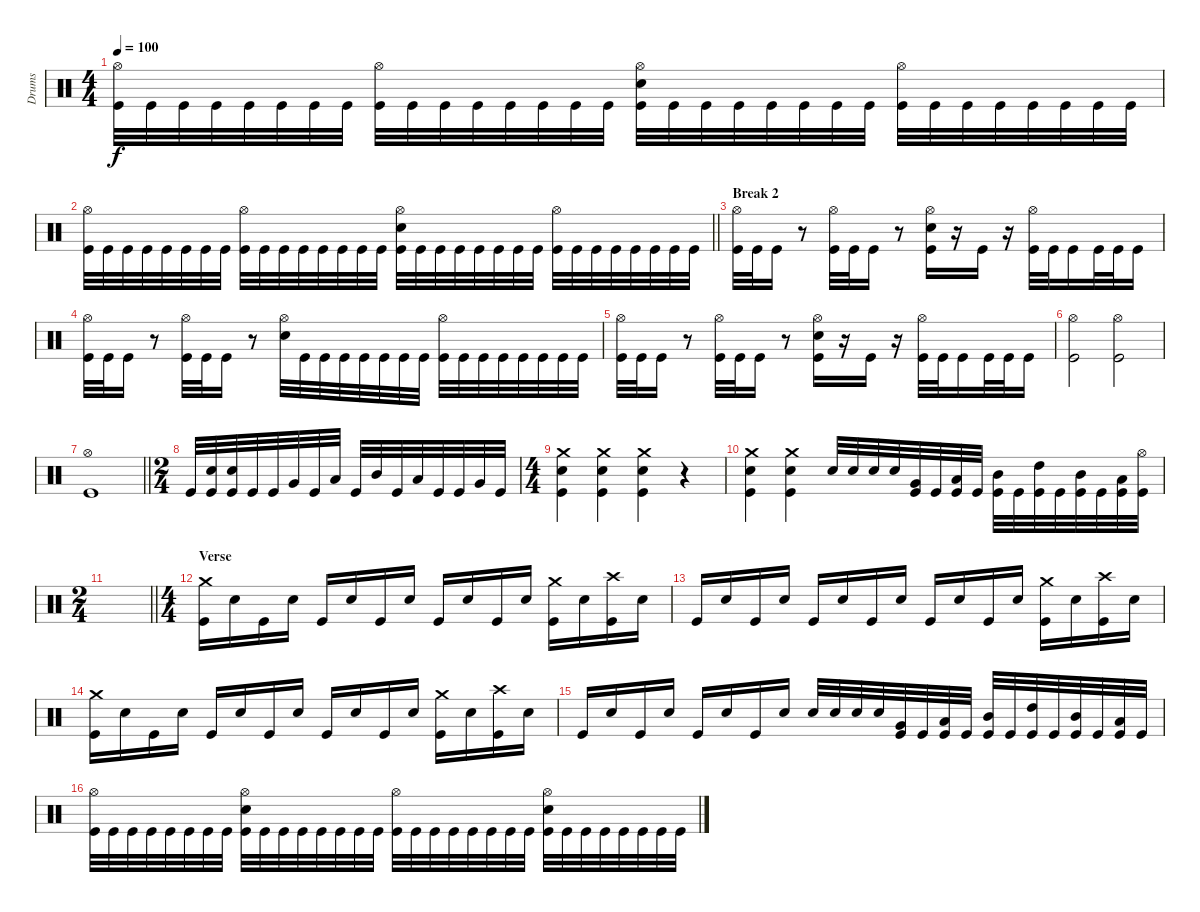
\track ("Drums" "Drums") {instrument percussion}
\staff {score}
\articulation defaults
\ts (4 4)
\tempo 100
\clef neutral
\ks c
("Hi-Hat (open)" "Kick (hit)").32{dy f} "Kick (hit)".32 "Kick (hit)".32 "Kick (hit)".32 "Kick (hit)".32 "Kick (hit)".32 "Kick (hit)".32 "Kick (hit)".32 ("Hi-Hat (open)" "Kick (hit)").32 "Kick (hit)".32 "Kick (hit)".32 "Kick (hit)".32 "Kick (hit)".32 "Kick (hit)".32 "Kick (hit)".32 "Kick (hit)".32 ("Hi-Hat (open)" "Electric Snare (hit)" "Kick (hit)").32 "Kick (hit)".32 "Kick (hit)".32 "Kick (hit)".32 "Kick (hit)".32 "Kick (hit)".32 "Kick (hit)".32 "Kick (hit)".32 ("Hi-Hat (open)" "Kick (hit)").32 "Kick (hit)".32 "Kick (hit)".32 "Kick (hit)".32 "Kick (hit)".32 "Kick (hit)".32 "Kick (hit)".32 "Kick (hit)".32 |
\barLineRight lightlight
("Hi-Hat (open)" "Kick (hit)").32 "Kick (hit)".32 "Kick (hit)".32 "Kick (hit)".32 "Kick (hit)".32 "Kick (hit)".32 "Kick (hit)".32 "Kick (hit)".32 ("Hi-Hat (open)" "Kick (hit)").32 "Kick (hit)".32 "Kick (hit)".32 "Kick (hit)".32 "Kick (hit)".32 "Kick (hit)".32 "Kick (hit)".32 "Kick (hit)".32 ("Hi-Hat (open)" "Electric Snare (hit)" "Kick (hit)").32 "Kick (hit)".32 "Kick (hit)".32 "Kick (hit)".32 "Kick (hit)".32 "Kick (hit)".32 "Kick (hit)".32 "Kick (hit)".32 ("Hi-Hat (open)" "Kick (hit)").32 "Kick (hit)".32 "Kick (hit)".32 "Kick (hit)".32 "Kick (hit)".32 "Kick (hit)".32 "Kick (hit)".32 "Kick (hit)".32 |
\section ("" "Break 2")
("Hi-Hat (open)" "Kick (hit)").32 "Kick (hit)".32 "Kick (hit)".16 r.8 ("Hi-Hat (open)" "Kick (hit)").32 "Kick (hit)".32 "Kick (hit)".16 r.8 ("Electric Snare (hit)" "Hi-Hat (open)" "Kick (hit)").16 r.16 "Kick (hit)".16 r.16 ("Hi-Hat (open)" "Kick (hit)").32 "Kick (hit)".32 "Kick (hit)".16 "Kick (hit)".32 "Kick (hit)".32 "Kick (hit)".16 |
("Hi-Hat (open)" "Kick (hit)").32 "Kick (hit)".32 "Kick (hit)".16 r.8 ("Hi-Hat (open)" "Kick (hit)").32 "Kick (hit)".32 "Kick (hit)".16 r.8 ("Hi-Hat (open)" "Electric Snare (hit)").32 "Kick (hit)".32 "Kick (hit)".32 "Kick (hit)".32 "Kick (hit)".32 "Kick (hit)".32 "Kick (hit)".32 "Kick (hit)".32 ("Hi-Hat (open)" "Kick (hit)").32 "Kick (hit)".32 "Kick (hit)".32 "Kick (hit)".32 "Kick (hit)".32 "Kick (hit)".32 "Kick (hit)".32 "Kick (hit)".32 |
("Hi-Hat (open)" "Kick (hit)").32 "Kick (hit)".32 "Kick (hit)".16 r.8 ("Hi-Hat (open)" "Kick (hit)").32 "Kick (hit)".32 "Kick (hit)".16 r.8 ("Electric Snare (hit)" "Hi-Hat (open)" "Kick (hit)").16 r.16 "Kick (hit)".16 r.16 ("Hi-Hat (open)" "Kick (hit)").32 "Kick (hit)".32 "Kick (hit)".16 "Kick (hit)".32 "Kick (hit)".32 "Kick (hit)".16 |
("Hi-Hat (open)" "Kick (hit)").2 ("Hi-Hat (open)" "Kick (hit)").2 |
\barLineRight lightlight
("Hi-Hat (open)" "Kick (hit)").1 |
\ts (2 4)
\section ("" "")
"Kick (hit)".32 ("Electric Snare (hit)" "Kick (hit)").32 ("Electric Snare (hit)" "Kick (hit)").32 "Kick (hit)".32 "Kick (hit)".32 "Very Low Tom (hit)".32 "Kick (hit)".32 "Low Tom (hit)".32 "Kick (hit)".32 "Mid Tom (hit)".32 "Kick (hit)".32 "Low Tom (hit)".32 "Kick (hit)".32 "Kick (hit)".32 "Very Low Tom (hit)".32 "Kick (hit)".32 |
\ts (4 4)
("Crash medium (hit)" "Electric Snare (hit)" "Kick (hit)").4 ("Crash medium (hit)" "Electric Snare (hit)" "Kick (hit)").4 ("Crash medium (hit)" "Electric Snare (hit)" "Kick (hit)").4 r.4 |
("Crash medium (hit)" "Electric Snare (hit)" "Kick (hit)").4 ("Crash medium (hit)" "Electric Snare (hit)" "Kick (hit)").4 "Electric Snare (hit)".32 "Electric Snare (hit)".32 "Electric Snare (hit)".32 "Electric Snare (hit)".32 ("Very Low Tom (hit)" "Kick (hit)").32 "Kick (hit)".32 ("Low Tom (hit)" "Kick (hit)").32 "Kick (hit)".32 ("Mid Tom (hit)" "Kick (hit)").32 "Kick (hit)".32 ("High Tom (hit)" "Kick (hit)").32 "Kick (hit)".32 ("Mid Tom (hit)" "Kick (hit)").32 "Kick (hit)".32 ("Low Tom (hit)" "Kick (hit)").32 ("Hi-Hat (open)" "Kick (hit)").32 |
\ts (2 4)
\barLineRight lightlight
|
\ts (4 4)
\section ("" "Verse")
("Crash medium (hit)" "Kick (hit)").16 "Electric Snare (hit)".16 "Kick (hit)".16 "Electric Snare (hit)".16 "Kick (hit)".16 "Electric Snare (hit)".16 "Kick (hit)".16 "Electric Snare (hit)".16 "Kick (hit)".16 "Electric Snare (hit)".16 "Kick (hit)".16 "Electric Snare (hit)".16 ("Crash medium (hit)" "Kick (hit)").16 "Electric Snare (hit)".16 ("Crash high (hit)" "Kick (hit)").16 "Electric Snare (hit)".16 |
"Kick (hit)".16 "Electric Snare (hit)".16 "Kick (hit)".16 "Electric Snare (hit)".16 "Kick (hit)".16 "Electric Snare (hit)".16 "Kick (hit)".16 "Electric Snare (hit)".16 "Kick (hit)".16 "Electric Snare (hit)".16 "Kick (hit)".16 "Electric Snare (hit)".16 ("Crash medium (hit)" "Kick (hit)").16 "Electric Snare (hit)".16 ("Crash high (hit)" "Kick (hit)").16 "Electric Snare (hit)".16 |
("Crash medium (hit)" "Kick (hit)").16 "Electric Snare (hit)".16 "Kick (hit)".16 "Electric Snare (hit)".16 "Kick (hit)".16 "Electric Snare (hit)".16 "Kick (hit)".16 "Electric Snare (hit)".16 "Kick (hit)".16 "Electric Snare (hit)".16 "Kick (hit)".16 "Electric Snare (hit)".16 ("Crash medium (hit)" "Kick (hit)").16 "Electric Snare (hit)".16 ("Crash high (hit)" "Kick (hit)").16 "Electric Snare (hit)".16 |
"Kick (hit)".16 "Electric Snare (hit)".16 "Kick (hit)".16 "Electric Snare (hit)".16 "Kick (hit)".16 "Electric Snare (hit)".16 "Kick (hit)".16 "Electric Snare (hit)".16 "Electric Snare (hit)".32 "Electric Snare (hit)".32 "Electric Snare (hit)".32 "Electric Snare (hit)".32 ("Very Low Tom (hit)" "Kick (hit)").32 "Kick (hit)".32 ("Low Tom (hit)" "Kick (hit)").32 "Kick (hit)".32 ("Mid Tom (hit)" "Kick (hit)").32 "Kick (hit)".32 ("High Tom (hit)" "Kick (hit)").32 "Kick (hit)".32 ("Mid Tom (hit)" "Kick (hit)").32 "Kick (hit)".32 ("Low Tom (hit)" "Kick (hit)").32 "Kick (hit)".32 |
("Hi-Hat (open)" "Kick (hit)").32 "Kick (hit)".32 "Kick (hit)".32 "Kick (hit)".32 "Kick (hit)".32 "Kick (hit)".32 "Kick (hit)".32 "Kick (hit)".32 ("Hi-Hat (open)" "Electric Snare (hit)" "Kick (hit)").32 "Kick (hit)".32 "Kick (hit)".32 "Kick (hit)".32 "Kick (hit)".32 "Kick (hit)".32 "Kick (hit)".32 "Kick (hit)".32 ("Hi-Hat (open)" "Kick (hit)").32 "Kick (hit)".32 "Kick (hit)".32 "Kick (hit)".32 "Kick (hit)".32 "Kick (hit)".32 "Kick (hit)".32 "Kick (hit)".32 ("Hi-Hat (open)" "Electric Snare (hit)" "Kick (hit)").32 "Kick (hit)".32 "Kick (hit)".32 "Kick (hit)".32 "Kick (hit)".32 "Kick (hit)".32 "Kick (hit)".32 "Kick (hit)".32
